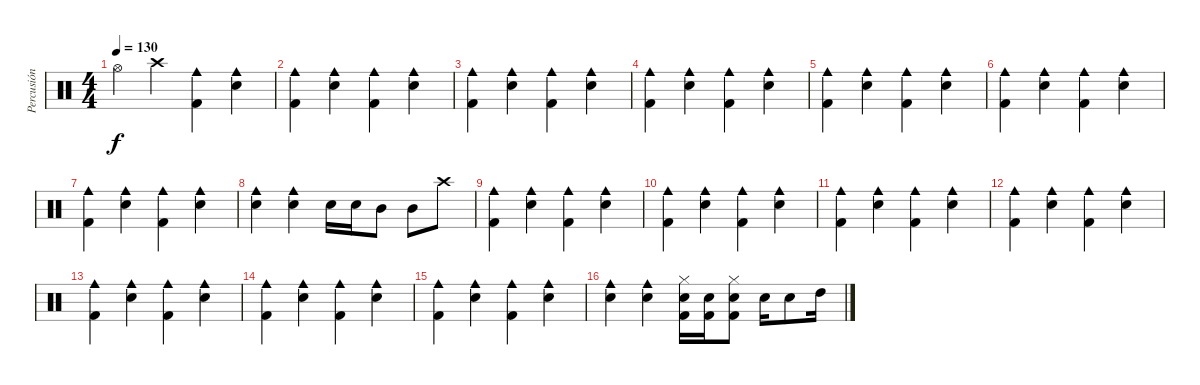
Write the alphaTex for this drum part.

\track ("Percusión" "Percusión") {instrument percussion}
\staff {score}
\articulation defaults
\ts (4 4)
\tempo 130
\clef neutral
\ks c "Hi-Hat (open)".4{dy f} "Crash high (hit)".4
("Cowbell medium (hit)" "Kick (hit) 2").4 ("Cowbell medium (hit)" "Snare (hit) 2").4 |
("Cowbell medium (hit)" "Kick (hit) 2").4 ("Cowbell medium (hit)" "Snare (hit) 2").4 ("Cowbell medium (hit)" "Kick (hit) 2").4 ("Cowbell medium (hit)" "Snare (hit) 2").4 |
("Cowbell medium (hit)" "Kick (hit) 2").4 ("Cowbell medium (hit)" "Snare (hit) 2").4 ("Cowbell medium (hit)" "Kick (hit) 2").4 ("Cowbell medium (hit)" "Snare (hit) 2").4 |
("Cowbell medium (hit)" "Kick (hit) 2").4 ("Cowbell medium (hit)" "Snare (hit) 2").4 ("Cowbell medium (hit)" "Kick (hit) 2").4 ("Cowbell medium (hit)" "Snare (hit) 2").4 |
("Cowbell medium (hit)" "Kick (hit) 2").4 ("Cowbell medium (hit)" "Snare (hit) 2").4 ("Cowbell medium (hit)" "Kick (hit) 2").4 ("Cowbell medium (hit)" "Snare (hit) 2").4 |
("Cowbell medium (hit)" "Kick (hit) 2").4 ("Cowbell medium (hit)" "Snare (hit) 2").4 ("Cowbell medium (hit)" "Kick (hit) 2").4 ("Cowbell medium (hit)" "Snare (hit) 2").4 |
("Cowbell medium (hit)" "Kick (hit) 2").4 ("Cowbell medium (hit)" "Snare (hit) 2").4 ("Cowbell medium (hit)" "Kick (hit) 2").4 ("Cowbell medium (hit)" "Snare (hit) 2").4 |
("Cowbell medium (hit)" "Snare (hit) 2").4 ("Cowbell medium (hit)" "Snare (hit) 2").4 "Snare (hit) 2".16 "Snare (hit) 2".16 "Mid Tom (hit)".8 "Mid Tom (hit)".8 "Crash high (hit)".8 |
("Cowbell medium (hit)" "Kick (hit) 2").4 ("Cowbell medium (hit)" "Snare (hit) 2").4 ("Cowbell medium (hit)" "Kick (hit) 2").4 ("Cowbell medium (hit)" "Snare (hit) 2").4 |
("Cowbell medium (hit)" "Kick (hit) 2").4 ("Cowbell medium (hit)" "Snare (hit) 2").4 ("Cowbell medium (hit)" "Kick (hit) 2").4 ("Cowbell medium (hit)" "Snare (hit) 2").4 |
("Cowbell medium (hit)" "Kick (hit) 2").4 ("Cowbell medium (hit)" "Snare (hit) 2").4 ("Cowbell medium (hit)" "Kick (hit) 2").4 ("Cowbell medium (hit)" "Snare (hit) 2").4 |
("Cowbell medium (hit)" "Kick (hit) 2").4 ("Cowbell medium (hit)" "Snare (hit) 2").4 ("Cowbell medium (hit)" "Kick (hit) 2").4 ("Cowbell medium (hit)" "Snare (hit) 2").4 |
("Cowbell medium (hit)" "Kick (hit) 2").4 ("Cowbell medium (hit)" "Snare (hit) 2").4 ("Cowbell medium (hit)" "Kick (hit) 2").4 ("Cowbell medium (hit)" "Snare (hit) 2").4 |
("Cowbell medium (hit)" "Kick (hit) 2").4 ("Cowbell medium (hit)" "Snare (hit) 2").4 ("Cowbell medium (hit)" "Kick (hit) 2").4 ("Cowbell medium (hit)" "Snare (hit) 2").4 |
("Cowbell medium (hit)" "Kick (hit) 2").4 ("Cowbell medium (hit)" "Snare (hit) 2").4 ("Cowbell medium (hit)" "Kick (hit) 2").4 ("Cowbell medium (hit)" "Snare (hit) 2").4 |
("Cowbell medium (hit)" "Snare (hit) 2").4 ("Cowbell medium (hit)" "Snare (hit) 2").4 ("Hi-Hat (closed)" "Snare (hit) 2" "Kick (hit) 2").16 ("Snare (hit) 2" "Kick (hit) 2").16 ("Hi-Hat (closed)" "Snare (hit) 2" "Kick (hit) 2").8 "Electric Snare (hit)".16 "Electric Snare (hit)".8 "High Tom (hit)".16
